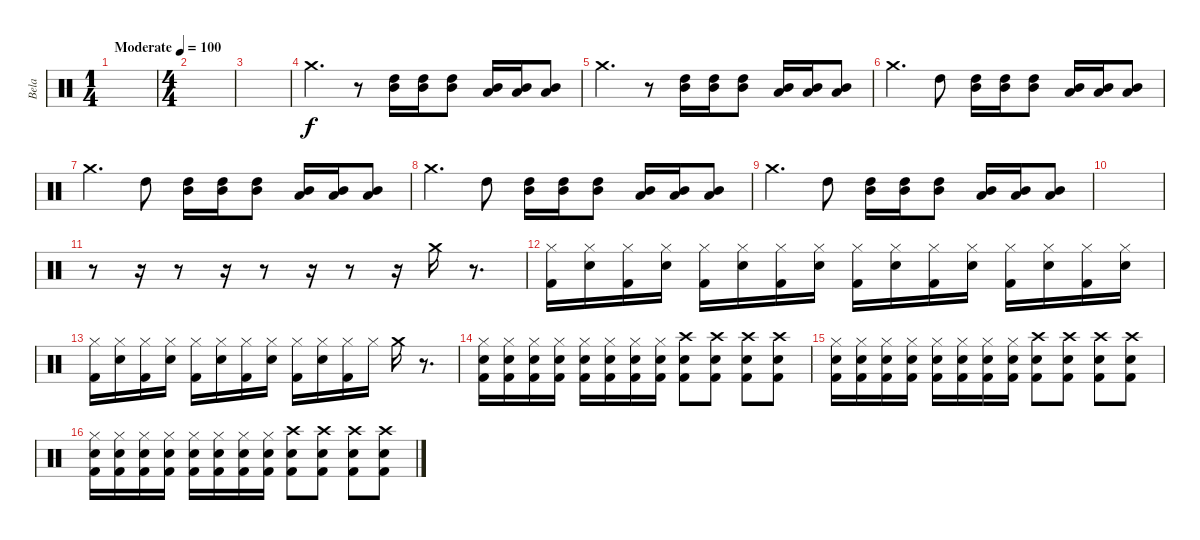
\track ("Bela" "Bela") {instrument percussion}
\staff {score}
\articulation defaults
\ts (1 4)
\tempo (100 "Moderate")
\clef neutral
\ks c
|
\ts (4 4)
|
|
"Crash medium (hit)".4{d} r.8 ("High Tom (hit)" "Mid Tom (hit)").16 ("High Tom (hit)" "Mid Tom (hit)").16 ("High Tom (hit)" "Mid Tom (hit)").8 ("Mid Tom (hit)" "Low Tom (hit)").16 ("Mid Tom (hit)" "Low Tom (hit)").16 ("Mid Tom (hit)" "Low Tom (hit)").8 |
"Crash medium (hit)".4{d} r.8 ("High Tom (hit)" "Mid Tom (hit)").16 ("High Tom (hit)" "Mid Tom (hit)").16 ("High Tom (hit)" "Mid Tom (hit)").8 ("Mid Tom (hit)" "Low Tom (hit)").16 ("Mid Tom (hit)" "Low Tom (hit)").16 ("Mid Tom (hit)" "Low Tom (hit)").8 |
"Crash medium (hit)".4{d} "High Tom (hit)".8 ("High Tom (hit)" "Mid Tom (hit)").16 ("High Tom (hit)" "Mid Tom (hit)").16 ("High Tom (hit)" "Mid Tom (hit)").8 ("Mid Tom (hit)" "Low Tom (hit)").16 ("Mid Tom (hit)" "Low Tom (hit)").16 ("Mid Tom (hit)" "Low Tom (hit)").8 |
"Crash medium (hit)".4{d} "High Tom (hit)".8 ("High Tom (hit)" "Mid Tom (hit)").16 ("High Tom (hit)" "Mid Tom (hit)").16 ("High Tom (hit)" "Mid Tom (hit)").8 ("Mid Tom (hit)" "Low Tom (hit)").16 ("Mid Tom (hit)" "Low Tom (hit)").16 ("Mid Tom (hit)" "Low Tom (hit)").8 |
"Crash medium (hit)".4{d} "High Tom (hit)".8 ("High Tom (hit)" "Mid Tom (hit)").16 ("High Tom (hit)" "Mid Tom (hit)").16 ("High Tom (hit)" "Mid Tom (hit)").8 ("Mid Tom (hit)" "Low Tom (hit)").16 ("Mid Tom (hit)" "Low Tom (hit)").16 ("Mid Tom (hit)" "Low Tom (hit)").8 |
"Crash medium (hit)".4{d} "High Tom (hit)".8 ("High Tom (hit)" "Mid Tom (hit)").16 ("High Tom (hit)" "Mid Tom (hit)").16 ("High Tom (hit)" "Mid Tom (hit)").8 ("Mid Tom (hit)" "Low Tom (hit)").16 ("Mid Tom (hit)" "Low Tom (hit)").16 ("Mid Tom (hit)" "Low Tom (hit)").8 |
|
r.8 r.16 r.8 r.16 r.8 r.16 r.8 r.16 "Crash medium (hit)".16 r.8{d} |
("Hi-Hat (closed)" "Kick (hit) 2").16 ("Hi-Hat (closed)" "Snare (hit) 2").16 ("Hi-Hat (closed)" "Kick (hit) 2").16 ("Hi-Hat (closed)" "Snare (hit) 2").16 ("Hi-Hat (closed)" "Kick (hit) 2").16 ("Hi-Hat (closed)" "Snare (hit) 2").16 ("Hi-Hat (closed)" "Kick (hit) 2").16 ("Hi-Hat (closed)" "Snare (hit) 2").16 ("Hi-Hat (closed)" "Kick (hit) 2").16 ("Hi-Hat (closed)" "Snare (hit) 2").16 ("Hi-Hat (closed)" "Kick (hit) 2").16 ("Hi-Hat (closed)" "Snare (hit) 2").16 ("Hi-Hat (closed)" "Kick (hit) 2").16 ("Hi-Hat (closed)" "Snare (hit) 2").16 ("Hi-Hat (closed)" "Kick (hit) 2").16 ("Hi-Hat (closed)" "Snare (hit) 2").16 |
("Hi-Hat (closed)" "Kick (hit) 2").16 ("Hi-Hat (closed)" "Snare (hit) 2").16 ("Hi-Hat (closed)" "Kick (hit) 2").16 ("Hi-Hat (closed)" "Snare (hit) 2").16 ("Hi-Hat (closed)" "Kick (hit) 2").16 ("Hi-Hat (closed)" "Snare (hit) 2").16 ("Hi-Hat (closed)" "Kick (hit) 2").16 ("Hi-Hat (closed)" "Snare (hit) 2").16 ("Hi-Hat (closed)" "Kick (hit) 2").16 ("Hi-Hat (closed)" "Snare (hit) 2").16 ("Hi-Hat (closed)" "Kick (hit) 2").16 "Hi-Hat (closed)".16 "Crash medium (hit)".16 r.8{d} |
("Hi-Hat (closed)" "Snare (hit) 2" "Kick (hit) 2").16 ("Hi-Hat (closed)" "Snare (hit) 2" "Kick (hit) 2").16 ("Hi-Hat (closed)" "Snare (hit) 2" "Kick (hit) 2").16 ("Hi-Hat (closed)" "Snare (hit) 2" "Kick (hit) 2").16 ("Hi-Hat (closed)" "Snare (hit) 2" "Kick (hit) 2").16 ("Hi-Hat (closed)" "Snare (hit) 2" "Kick (hit) 2").16 ("Hi-Hat (closed)" "Snare (hit) 2" "Kick (hit) 2").16 ("Hi-Hat (closed)" "Snare (hit) 2" "Kick (hit) 2").16 ("Crash high (hit)" "Snare (hit) 2" "Kick (hit) 2").8 ("Crash high (hit)" "Snare (hit) 2" "Kick (hit) 2").8 ("Crash high (hit)" "Snare (hit) 2" "Kick (hit) 2").8 ("Crash high (hit)" "Snare (hit) 2" "Kick (hit) 2").8 |
("Hi-Hat (closed)" "Snare (hit) 2" "Kick (hit) 2").16 ("Hi-Hat (closed)" "Snare (hit) 2" "Kick (hit) 2").16 ("Hi-Hat (closed)" "Snare (hit) 2" "Kick (hit) 2").16 ("Hi-Hat (closed)" "Snare (hit) 2" "Kick (hit) 2").16 ("Hi-Hat (closed)" "Snare (hit) 2" "Kick (hit) 2").16 ("Hi-Hat (closed)" "Snare (hit) 2" "Kick (hit) 2").16 ("Hi-Hat (closed)" "Snare (hit) 2" "Kick (hit) 2").16 ("Hi-Hat (closed)" "Snare (hit) 2" "Kick (hit) 2").16 ("Crash high (hit)" "Snare (hit) 2" "Kick (hit) 2").8 ("Crash high (hit)" "Snare (hit) 2" "Kick (hit) 2").8 ("Crash high (hit)" "Snare (hit) 2" "Kick (hit) 2").8 ("Crash high (hit)" "Snare (hit) 2" "Kick (hit) 2").8 |
("Hi-Hat (closed)" "Snare (hit) 2" "Kick (hit) 2").16 ("Hi-Hat (closed)" "Snare (hit) 2" "Kick (hit) 2").16 ("Hi-Hat (closed)" "Snare (hit) 2" "Kick (hit) 2").16 ("Hi-Hat (closed)" "Snare (hit) 2" "Kick (hit) 2").16 ("Hi-Hat (closed)" "Snare (hit) 2" "Kick (hit) 2").16 ("Hi-Hat (closed)" "Snare (hit) 2" "Kick (hit) 2").16 ("Hi-Hat (closed)" "Snare (hit) 2" "Kick (hit) 2").16 ("Hi-Hat (closed)" "Snare (hit) 2" "Kick (hit) 2").16 ("Crash high (hit)" "Snare (hit) 2" "Kick (hit) 2").8 ("Crash high (hit)" "Snare (hit) 2" "Kick (hit) 2").8 ("Crash high (hit)" "Snare (hit) 2" "Kick (hit) 2").8 ("Crash high (hit)" "Snare (hit) 2" "Kick (hit) 2").8
